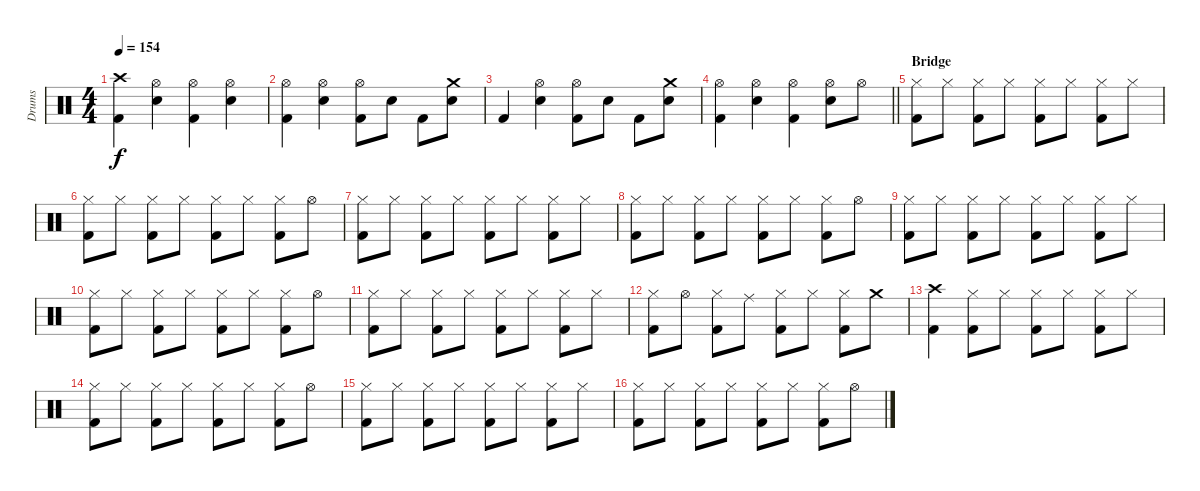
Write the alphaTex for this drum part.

\track ("Drums" "Drums") {instrument percussion}
\staff {score}
\articulation defaults
\ts (4 4)
\tempo 154
\clef neutral
\ks c
("Crash high (hit)" "Kick (hit) 2").4{dy f} ("Hi-Hat (open)" "Snare (hit) 2").4 ("Hi-Hat (open)" "Kick (hit) 2").4 ("Hi-Hat (open)" "Snare (hit) 2").4 |
("Hi-Hat (open)" "Kick (hit) 2").4 ("Hi-Hat (open)" "Snare (hit) 2").4 ("Hi-Hat (open)" "Kick (hit) 2").8 "Snare (hit) 2".8 "Kick (hit) 2".8 ("Crash medium (hit)" "Snare (hit) 2").8 |
"Kick (hit) 2".4 ("Hi-Hat (open)" "Snare (hit) 2").4 ("Hi-Hat (open)" "Kick (hit) 2").8 "Snare (hit) 2".8 "Kick (hit) 2".8 ("Crash medium (hit)" "Snare (hit) 2").8 |
\barLineRight lightlight
("Hi-Hat (open)" "Kick (hit) 2").4 ("Hi-Hat (open)" "Snare (hit) 2").4 ("Hi-Hat (open)" "Kick (hit) 2").4 ("Hi-Hat (open)" "Snare (hit) 2").8 "Hi-Hat (open)".8 |
\section ("" "Bridge")
("Hi-Hat (closed)" "Kick (hit) 2").8 "Hi-Hat (closed)".8 ("Hi-Hat (closed)" "Kick (hit) 2").8 "Hi-Hat (closed)".8 ("Hi-Hat (closed)" "Kick (hit) 2").8 "Hi-Hat (closed)".8 ("Hi-Hat (closed)" "Kick (hit) 2").8 "Hi-Hat (closed)".8 |
("Hi-Hat (closed)" "Kick (hit) 2").8 "Hi-Hat (closed)".8 ("Hi-Hat (closed)" "Kick (hit) 2").8 "Hi-Hat (closed)".8 ("Hi-Hat (closed)" "Kick (hit) 2").8 "Hi-Hat (closed)".8 ("Hi-Hat (closed)" "Kick (hit) 2").8 "Hi-Hat (open)".8 |
("Hi-Hat (closed)" "Kick (hit) 2").8 "Hi-Hat (closed)".8 ("Hi-Hat (closed)" "Kick (hit) 2").8 "Hi-Hat (closed)".8 ("Hi-Hat (closed)" "Kick (hit) 2").8 "Hi-Hat (closed)".8 ("Hi-Hat (closed)" "Kick (hit) 2").8 "Hi-Hat (closed)".8 |
("Hi-Hat (closed)" "Kick (hit) 2").8 "Hi-Hat (closed)".8 ("Hi-Hat (closed)" "Kick (hit) 2").8 "Hi-Hat (closed)".8 ("Hi-Hat (closed)" "Kick (hit) 2").8 "Hi-Hat (closed)".8 ("Hi-Hat (closed)" "Kick (hit) 2").8 "Hi-Hat (open)".8 |
("Hi-Hat (closed)" "Kick (hit) 2").8 "Hi-Hat (closed)".8 ("Hi-Hat (closed)" "Kick (hit) 2").8 "Hi-Hat (closed)".8 ("Hi-Hat (closed)" "Kick (hit) 2").8 "Hi-Hat (closed)".8 ("Hi-Hat (closed)" "Kick (hit) 2").8 "Hi-Hat (closed)".8 |
("Hi-Hat (closed)" "Kick (hit) 2").8 "Hi-Hat (closed)".8 ("Hi-Hat (closed)" "Kick (hit) 2").8 "Hi-Hat (closed)".8 ("Hi-Hat (closed)" "Kick (hit) 2").8 "Hi-Hat (closed)".8 ("Hi-Hat (closed)" "Kick (hit) 2").8 "Hi-Hat (open)".8 |
("Hi-Hat (closed)" "Kick (hit) 2").8 "Hi-Hat (closed)".8 ("Hi-Hat (closed)" "Kick (hit) 2").8 "Hi-Hat (closed)".8 ("Hi-Hat (closed)" "Kick (hit) 2").8 "Hi-Hat (closed)".8 ("Hi-Hat (closed)" "Kick (hit) 2").8 "Hi-Hat (closed)".8 |
("Hi-Hat (closed)" "Kick (hit) 2").8 "Hi-Hat (open)".8 ("Hi-Hat (closed)" "Kick (hit) 2").8 "Ride (middle)".8 ("Hi-Hat (closed)" "Kick (hit) 2").8 "Hi-Hat (closed)".8 ("Hi-Hat (closed)" "Kick (hit) 2").8 "Crash medium (hit)".8 |
("Crash high (hit)" "Kick (hit) 2").4 ("Hi-Hat (closed)" "Kick (hit) 2").8 "Hi-Hat (closed)".8 ("Hi-Hat (closed)" "Kick (hit) 2").8 "Hi-Hat (closed)".8 ("Hi-Hat (closed)" "Kick (hit) 2").8 "Hi-Hat (closed)".8 |
("Hi-Hat (closed)" "Kick (hit) 2").8 "Hi-Hat (closed)".8 ("Hi-Hat (closed)" "Kick (hit) 2").8 "Hi-Hat (closed)".8 ("Hi-Hat (closed)" "Kick (hit) 2").8 "Hi-Hat (closed)".8 ("Hi-Hat (closed)" "Kick (hit) 2").8 "Hi-Hat (open)".8 |
("Hi-Hat (closed)" "Kick (hit) 2").8 "Hi-Hat (closed)".8 ("Hi-Hat (closed)" "Kick (hit) 2").8 "Hi-Hat (closed)".8 ("Hi-Hat (closed)" "Kick (hit) 2").8 "Hi-Hat (closed)".8 ("Hi-Hat (closed)" "Kick (hit) 2").8 "Hi-Hat (closed)".8 |
("Hi-Hat (closed)" "Kick (hit) 2").8 "Hi-Hat (closed)".8 ("Hi-Hat (closed)" "Kick (hit) 2").8 "Hi-Hat (closed)".8 ("Hi-Hat (closed)" "Kick (hit) 2").8 "Hi-Hat (closed)".8 ("Hi-Hat (closed)" "Kick (hit) 2").8 "Hi-Hat (open)".8
